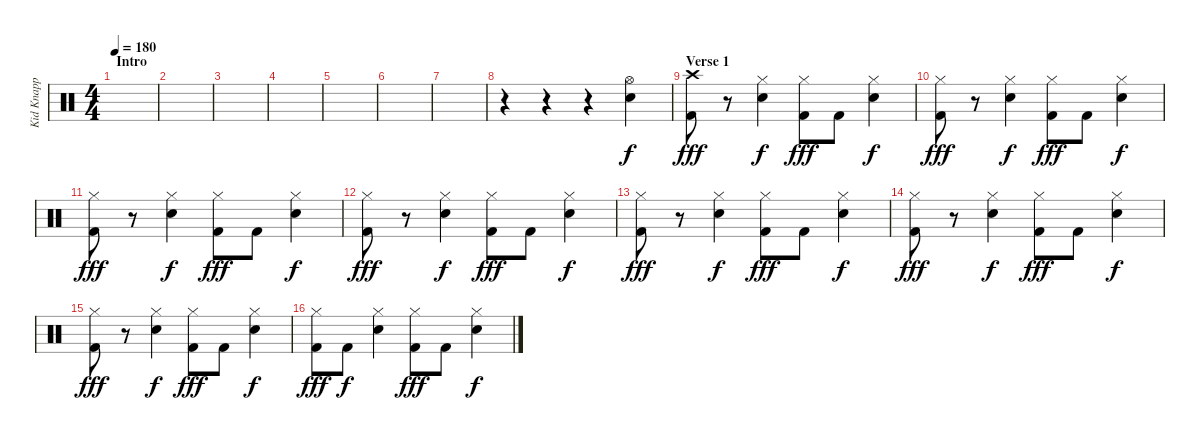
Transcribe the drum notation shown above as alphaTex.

\track ("Kid Knapp (Drums)" "Kid Knapp ") {instrument percussion}
\staff {score}
\articulation defaults
\ts (4 4)
\section ("" "Intro")
\tempo 180
\clef neutral
\ks c
|
|
|
|
|
|
|
r.4 r.4 r.4 ("Hi-Hat (open)" "Snare (hit) 2").4 |
\section ("" "Verse 1")
("Crash high (hit)" "Kick (hit) 2").8{dy fff} r.8 ("Hi-Hat (closed)" "Snare (hit) 2").4{dy f} ("Hi-Hat (closed)" "Kick (hit) 2").8{dy fff} "Kick (hit) 2".8 ("Hi-Hat (closed)" "Snare (hit) 2").4{dy f} |
("Hi-Hat (closed)" "Kick (hit) 2").8{dy fff} r.8 ("Hi-Hat (closed)" "Snare (hit) 2").4{dy f} ("Hi-Hat (closed)" "Kick (hit) 2").8{dy fff} "Kick (hit) 2".8 ("Hi-Hat (closed)" "Snare (hit) 2").4{dy f} |
("Hi-Hat (closed)" "Kick (hit) 2").8{dy fff} r.8 ("Hi-Hat (closed)" "Snare (hit) 2").4{dy f} ("Hi-Hat (closed)" "Kick (hit) 2").8{dy fff} "Kick (hit) 2".8 ("Hi-Hat (closed)" "Snare (hit) 2").4{dy f} |
("Hi-Hat (closed)" "Kick (hit) 2").8{dy fff} r.8 ("Hi-Hat (closed)" "Snare (hit) 2").4{dy f} ("Hi-Hat (closed)" "Kick (hit) 2").8{dy fff} "Kick (hit) 2".8 ("Hi-Hat (closed)" "Snare (hit) 2").4{dy f} |
("Hi-Hat (closed)" "Kick (hit) 2").8{dy fff} r.8 ("Hi-Hat (closed)" "Snare (hit) 2").4{dy f} ("Hi-Hat (closed)" "Kick (hit) 2").8{dy fff} "Kick (hit) 2".8 ("Hi-Hat (closed)" "Snare (hit) 2").4{dy f} |
("Hi-Hat (closed)" "Kick (hit) 2").8{dy fff} r.8 ("Hi-Hat (closed)" "Snare (hit) 2").4{dy f} ("Hi-Hat (closed)" "Kick (hit) 2").8{dy fff} "Kick (hit) 2".8 ("Hi-Hat (closed)" "Snare (hit) 2").4{dy f} |
("Hi-Hat (closed)" "Kick (hit) 2").8{dy fff} r.8 ("Hi-Hat (closed)" "Snare (hit) 2").4{dy f} ("Hi-Hat (closed)" "Kick (hit) 2").8{dy fff} "Kick (hit) 2".8 ("Hi-Hat (closed)" "Snare (hit) 2").4{dy f} |
("Hi-Hat (closed)" "Kick (hit) 2").8{dy fff} "Kick (hit) 2".8{dy f} ("Hi-Hat (closed)" "Snare (hit) 2").4 ("Hi-Hat (closed)" "Kick (hit) 2").8{dy fff} "Kick (hit) 2".8 ("Hi-Hat (closed)" "Snare (hit) 2").4{dy f}
